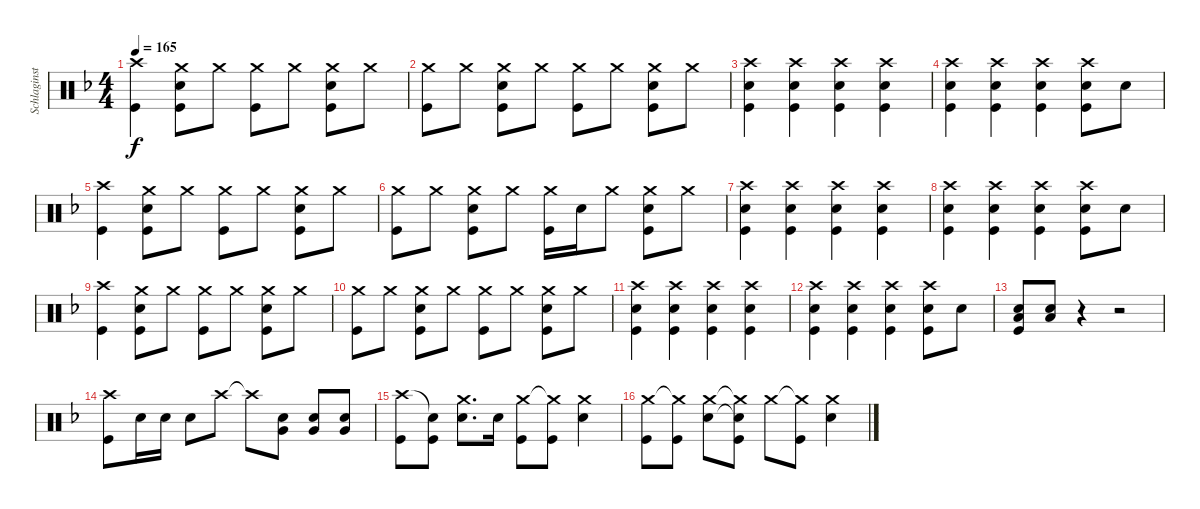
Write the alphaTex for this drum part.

\track ("Schlaginstrumente - Auswahl" "Schlaginst") {instrument percussion}
\staff {score}
\articulation defaults
\ts (4 4)
\tempo 165
\clef neutral
\ks f
("Crash high (hit)" "Kick (hit)").4{dy f} ("Crash medium (hit)" "Snare (hit) 2" "Kick (hit)").8 "Crash medium (hit)".8 ("Crash medium (hit)" "Kick (hit)").8 "Crash medium (hit)".8 ("Crash medium (hit)" "Snare (hit) 2" "Kick (hit)").8 "Crash medium (hit)".8 |
("Crash medium (hit)" "Kick (hit)").8 "Crash medium (hit)".8 ("Crash medium (hit)" "Snare (hit) 2" "Kick (hit)").8 "Crash medium (hit)".8 ("Crash medium (hit)" "Kick (hit)").8 "Crash medium (hit)".8 ("Crash medium (hit)" "Snare (hit) 2" "Kick (hit)").8 "Crash medium (hit)".8 |
("Crash high (hit)" "Snare (hit) 2" "Kick (hit)").4 ("Crash high (hit)" "Snare (hit) 2" "Kick (hit)").4 ("Crash high (hit)" "Snare (hit) 2" "Kick (hit)").4 ("Crash high (hit)" "Snare (hit) 2" "Kick (hit)").4 |
("Crash high (hit)" "Snare (hit) 2" "Kick (hit)").4 ("Crash high (hit)" "Snare (hit) 2" "Kick (hit)").4 ("Crash high (hit)" "Snare (hit) 2" "Kick (hit)").4 ("Crash high (hit)" "Snare (hit) 2" "Kick (hit)").8 "Snare (hit) 2".8 |
("Crash high (hit)" "Kick (hit)").4 ("Crash medium (hit)" "Snare (hit) 2" "Kick (hit)").8 "Crash medium (hit)".8 ("Crash medium (hit)" "Kick (hit)").8 "Crash medium (hit)".8 ("Crash medium (hit)" "Snare (hit) 2" "Kick (hit)").8 "Crash medium (hit)".8 |
("Crash medium (hit)" "Kick (hit)").8 "Crash medium (hit)".8 ("Crash medium (hit)" "Snare (hit) 2" "Kick (hit)").8 "Crash medium (hit)".8 ("Crash medium (hit)" "Kick (hit)").16 "Snare (hit) 2".16 "Crash medium (hit)".8 ("Crash medium (hit)" "Snare (hit) 2" "Kick (hit)").8 "Crash medium (hit)".8 |
("Crash high (hit)" "Snare (hit) 2" "Kick (hit)").4 ("Crash high (hit)" "Snare (hit) 2" "Kick (hit)").4 ("Crash high (hit)" "Snare (hit) 2" "Kick (hit)").4 ("Crash high (hit)" "Snare (hit) 2" "Kick (hit)").4 |
("Crash high (hit)" "Snare (hit) 2" "Kick (hit)").4 ("Crash high (hit)" "Snare (hit) 2" "Kick (hit)").4 ("Crash high (hit)" "Snare (hit) 2" "Kick (hit)").4 ("Crash high (hit)" "Snare (hit) 2" "Kick (hit)").8 "Snare (hit) 2".8 |
("Crash high (hit)" "Kick (hit)").4 ("Crash medium (hit)" "Snare (hit) 2" "Kick (hit)").8 "Crash medium (hit)".8 ("Crash medium (hit)" "Kick (hit)").8 "Crash medium (hit)".8 ("Crash medium (hit)" "Snare (hit) 2" "Kick (hit)").8 "Crash medium (hit)".8 |
("Crash medium (hit)" "Kick (hit)").8 "Crash medium (hit)".8 ("Crash medium (hit)" "Snare (hit) 2" "Kick (hit)").8 "Crash medium (hit)".8 ("Crash medium (hit)" "Kick (hit)").8 "Crash medium (hit)".8 ("Crash medium (hit)" "Snare (hit) 2" "Kick (hit)").8 "Crash medium (hit)".8 |
("Crash high (hit)" "Snare (hit) 2" "Kick (hit)").4 ("Crash high (hit)" "Snare (hit) 2" "Kick (hit)").4 ("Crash high (hit)" "Snare (hit) 2" "Kick (hit)").4 ("Crash high (hit)" "Snare (hit) 2" "Kick (hit)").4 |
("Crash high (hit)" "Snare (hit) 2" "Kick (hit)").4 ("Crash high (hit)" "Snare (hit) 2" "Kick (hit)").4 ("Crash high (hit)" "Snare (hit) 2" "Kick (hit)").4 ("Crash high (hit)" "Snare (hit) 2" "Kick (hit)").8 "Snare (hit) 2".8 |
("Low Tom (hit)" "Snare (hit) 2" "Kick (hit)").8 ("Low Tom (hit)" "Snare (hit) 2").8 r.4 r.2 |
("Crash high (hit)" "Kick (hit)").8 "Snare (hit) 2".16 "Snare (hit) 2".16 "Snare (hit) 2".8 "Crash high (hit)".8 "Crash high (hit)"{t}.8 ("Very Low Tom (hit)" "Snare (hit) 2").8 ("Very Low Tom (hit)" "Snare (hit) 2").8 ("Very Low Tom (hit)" "Snare (hit) 2").8 |
("Crash high (hit)" "Kick (hit)").8 ("Snare (hit)"{t} "Kick (hit)").8 ("Crash medium (hit)" "Snare (hit) 2").8{d} "Snare (hit) 2".16 ("Crash medium (hit)" "Kick (hit)").8 ("Crash medium (hit)"{t} "Kick (hit)").8 ("Crash medium (hit)" "Snare (hit) 2").4 |
("Crash medium (hit)" "Kick (hit)").8 ("Crash medium (hit)"{t} "Kick (hit)").8 ("Crash medium (hit)" "Snare (hit) 2").8 ("Crash medium (hit)"{t} "Snare (hit) 2"{t} "Kick (hit)").8 "Crash medium (hit)".8 ("Crash medium (hit)"{t} "Kick (hit)").8 ("Crash medium (hit)" "Snare (hit) 2").4
